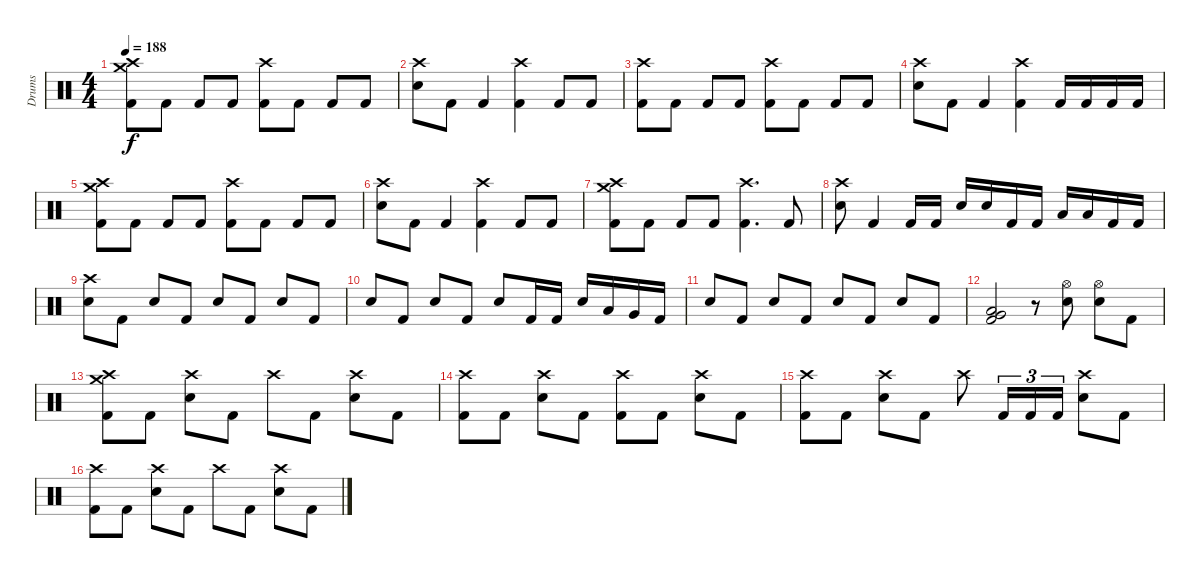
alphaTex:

\track ("Drums" "Drums") {instrument percussion}
\staff {score}
\articulation defaults
\ts (4 4)
\tempo 188
\clef neutral
\ks c
("Crash high (hit)" "Crash medium (hit)" "Kick (hit) 2").8{dy f} "Kick (hit) 2".8 "Kick (hit) 2".8 "Kick (hit) 2".8 ("Crash high (hit)" "Kick (hit) 2").8 "Kick (hit) 2".8 "Kick (hit) 2".8 "Kick (hit) 2".8 |
("Crash high (hit)" "Electric Snare (hit)").8 "Kick (hit) 2".8 "Kick (hit) 2".4 ("Crash high (hit)" "Kick (hit) 2").4 "Kick (hit) 2".8 "Kick (hit) 2".8 |
("Crash high (hit)" "Kick (hit) 2").8 "Kick (hit) 2".8 "Kick (hit) 2".8 "Kick (hit) 2".8 ("Crash high (hit)" "Kick (hit) 2").8 "Kick (hit) 2".8 "Kick (hit) 2".8 "Kick (hit) 2".8 |
("Crash high (hit)" "Electric Snare (hit)").8 "Kick (hit) 2".8 "Kick (hit) 2".4 ("Crash high (hit)" "Kick (hit) 2").4 "Kick (hit) 2".16 "Kick (hit) 2".16 "Kick (hit) 2".16 "Kick (hit) 2".16 |
("Crash high (hit)" "Crash medium (hit)" "Kick (hit) 2").8 "Kick (hit) 2".8 "Kick (hit) 2".8 "Kick (hit) 2".8 ("Crash high (hit)" "Kick (hit) 2").8 "Kick (hit) 2".8 "Kick (hit) 2".8 "Kick (hit) 2".8 |
("Crash high (hit)" "Electric Snare (hit)").8 "Kick (hit) 2".8 "Kick (hit) 2".4 ("Crash high (hit)" "Kick (hit) 2").4 "Kick (hit) 2".8 "Kick (hit) 2".8 |
("Crash high (hit)" "Crash medium (hit)" "Kick (hit) 2").8 "Kick (hit) 2".8 "Kick (hit) 2".8 "Kick (hit) 2".8 ("Crash high (hit)" "Kick (hit) 2").4{d} "Kick (hit) 2".8 |
("Crash high (hit)" "Electric Snare (hit)").8 "Kick (hit) 2".4 "Kick (hit) 2".16 "Kick (hit) 2".16 "Electric Snare (hit)".16 "Electric Snare (hit)".16 "Kick (hit) 2".16 "Kick (hit) 2".16 "Low Tom (hit)".16 "Low Tom (hit)".16 "Kick (hit) 2".16 "Kick (hit) 2".16 |
("Crash high (hit)" "Electric Snare (hit)").8 "Kick (hit) 2".8 "Electric Snare (hit)".8 "Kick (hit) 2".8 "Electric Snare (hit)".8 "Kick (hit) 2".8 "Electric Snare (hit)".8 "Kick (hit) 2".8 |
"Electric Snare (hit)".8 "Kick (hit) 2".8 "Electric Snare (hit)".8 "Kick (hit) 2".8 "Electric Snare (hit)".8 "Kick (hit) 2".16 "Kick (hit) 2".16 "Electric Snare (hit)".16 "Low Tom (hit)".16 "Very Low Tom (hit)".16 "Kick (hit) 2".16 |
"Electric Snare (hit)".8 "Kick (hit) 2".8 "Electric Snare (hit)".8 "Kick (hit) 2".8 "Electric Snare (hit)".8 "Kick (hit) 2".8 "Electric Snare (hit)".8 "Kick (hit) 2".8 |
("Low Tom (hit)" "Very Low Tom (hit)" "Kick (hit) 2").2 r.8 ("Hi-Hat (open)" "Electric Snare (hit)").8 ("Hi-Hat (open)" "Electric Snare (hit)").8 "Kick (hit) 2".8 |
("Crash high (hit)" "Crash medium (hit)" "Kick (hit) 2").8 "Kick (hit) 2".8 ("Crash high (hit)" "Electric Snare (hit)").8 "Kick (hit) 2".8 "Crash high (hit)".8 "Kick (hit) 2".8 ("Crash high (hit)" "Electric Snare (hit)").8 "Kick (hit) 2".8 |
("Crash high (hit)" "Kick (hit) 2").8 "Kick (hit) 2".8 ("Crash high (hit)" "Electric Snare (hit)").8 "Kick (hit) 2".8 ("Crash high (hit)" "Kick (hit) 2").8 "Kick (hit) 2".8 ("Crash high (hit)" "Electric Snare (hit)").8 "Kick (hit) 2".8 |
("Crash high (hit)" "Kick (hit) 2").8 "Kick (hit) 2".8 ("Crash high (hit)" "Electric Snare (hit)").8 "Kick (hit) 2".8 "Crash high (hit)".8 "Kick (hit) 2".16{tu (3 2)} "Kick (hit) 2".16{tu (3 2)} "Kick (hit) 2".16{tu (3 2)} ("Crash high (hit)" "Electric Snare (hit)").8 "Kick (hit) 2".8 |
("Crash high (hit)" "Kick (hit) 2").8 "Kick (hit) 2".8 ("Crash high (hit)" "Electric Snare (hit)").8 "Kick (hit) 2".8 "Crash high (hit)".8 "Kick (hit) 2".8 ("Crash high (hit)" "Electric Snare (hit)").8 "Kick (hit) 2".8
